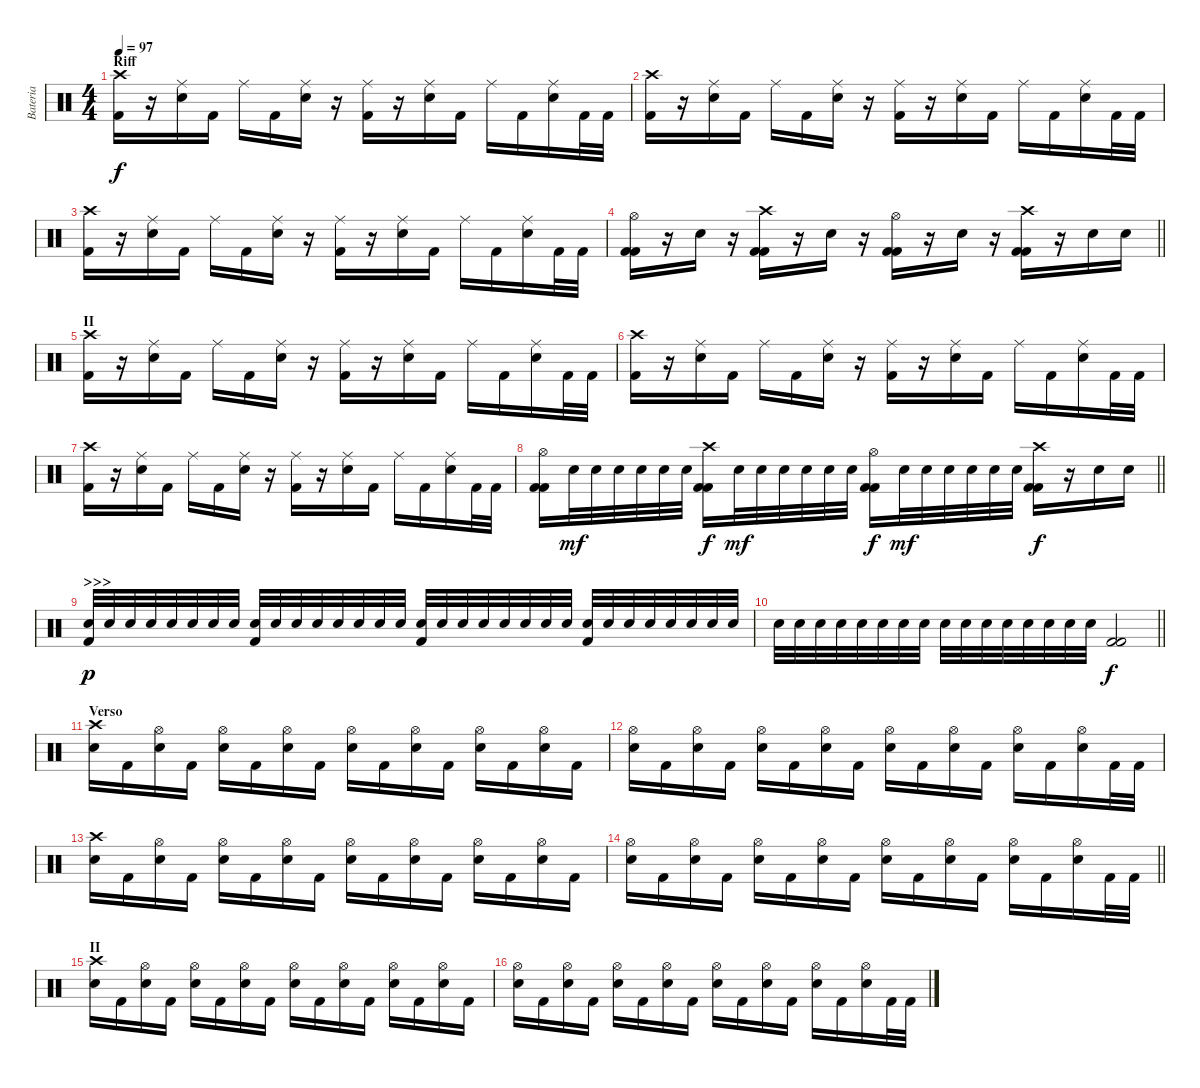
\track ("Bateria" "Bateria") {instrument percussion}
\staff {score}
\articulation defaults
\ts (4 4)
\section ("" "Riff")
\tempo 97
\clef neutral
\ks c
("Crash high (hit)" "Kick (hit) 2").16{dy f} r.16 ("Ride (middle)" "Electric Snare (hit)").16 "Kick (hit) 2".16 "Ride (middle)".16 "Kick (hit) 2".16 ("Ride (middle)" "Electric Snare (hit)").16 r.16 ("Ride (middle)" "Kick (hit) 2").16 r.16 ("Ride (middle)" "Electric Snare (hit)").16 "Kick (hit) 2".16 "Ride (middle)".16 "Kick (hit) 2".16 ("Ride (middle)" "Electric Snare (hit)").16 "Kick (hit) 2".32 "Kick (hit) 2".32 |
("Crash high (hit)" "Kick (hit) 2").16 r.16 ("Ride (middle)" "Electric Snare (hit)").16 "Kick (hit) 2".16 "Ride (middle)".16 "Kick (hit) 2".16 ("Ride (middle)" "Electric Snare (hit)").16 r.16 ("Ride (middle)" "Kick (hit) 2").16 r.16 ("Ride (middle)" "Electric Snare (hit)").16 "Kick (hit) 2".16 "Ride (middle)".16 "Kick (hit) 2".16 ("Ride (middle)" "Electric Snare (hit)").16 "Kick (hit) 2".32 "Kick (hit) 2".32 |
("Crash high (hit)" "Kick (hit) 2").16 r.16 ("Ride (middle)" "Electric Snare (hit)").16 "Kick (hit) 2".16 "Ride (middle)".16 "Kick (hit) 2".16 ("Ride (middle)" "Electric Snare (hit)").16 r.16 ("Ride (middle)" "Kick (hit) 2").16 r.16 ("Ride (middle)" "Electric Snare (hit)").16 "Kick (hit) 2".16 "Ride (middle)".16 "Kick (hit) 2".16 ("Ride (middle)" "Electric Snare (hit)").16 "Kick (hit) 2".32 "Kick (hit) 2".32 |
\barLineRight lightlight
("Hi-Hat (open)" "Kick (hit) 2" "Kick (hit) 2").16 r.16 "Electric Snare (hit)".16 r.16 ("Crash high (hit)" "Kick (hit) 2" "Kick (hit) 2").16 r.16 "Electric Snare (hit)".16 r.16 ("Hi-Hat (open)" "Kick (hit) 2" "Kick (hit) 2").16 r.16 "Electric Snare (hit)".16 r.16 ("Crash high (hit)" "Kick (hit) 2" "Kick (hit) 2").16 r.16 "Electric Snare (hit)".16 "Electric Snare (hit)".16 |
\section ("" "II")
("Crash high (hit)" "Kick (hit) 2").16 r.16 ("Ride (middle)" "Electric Snare (hit)").16 "Kick (hit) 2".16 "Ride (middle)".16 "Kick (hit) 2".16 ("Ride (middle)" "Electric Snare (hit)").16 r.16 ("Ride (middle)" "Kick (hit) 2").16 r.16 ("Ride (middle)" "Electric Snare (hit)").16 "Kick (hit) 2".16 "Ride (middle)".16 "Kick (hit) 2".16 ("Ride (middle)" "Electric Snare (hit)").16 "Kick (hit) 2".32 "Kick (hit) 2".32 |
("Crash high (hit)" "Kick (hit) 2").16 r.16 ("Ride (middle)" "Electric Snare (hit)").16 "Kick (hit) 2".16 "Ride (middle)".16 "Kick (hit) 2".16 ("Ride (middle)" "Electric Snare (hit)").16 r.16 ("Ride (middle)" "Kick (hit) 2").16 r.16 ("Ride (middle)" "Electric Snare (hit)").16 "Kick (hit) 2".16 "Ride (middle)".16 "Kick (hit) 2".16 ("Ride (middle)" "Electric Snare (hit)").16 "Kick (hit) 2".32 "Kick (hit) 2".32 |
("Crash high (hit)" "Kick (hit) 2").16 r.16 ("Ride (middle)" "Electric Snare (hit)").16 "Kick (hit) 2".16 "Ride (middle)".16 "Kick (hit) 2".16 ("Ride (middle)" "Electric Snare (hit)").16 r.16 ("Ride (middle)" "Kick (hit) 2").16 r.16 ("Ride (middle)" "Electric Snare (hit)").16 "Kick (hit) 2".16 "Ride (middle)".16 "Kick (hit) 2".16 ("Ride (middle)" "Electric Snare (hit)").16 "Kick (hit) 2".32 "Kick (hit) 2".32 |
\barLineRight lightlight
("Hi-Hat (open)" "Kick (hit) 2" "Kick (hit) 2").16 "Electric Snare (hit)".32{dy mf} "Electric Snare (hit)".32 "Electric Snare (hit)".32 "Electric Snare (hit)".32 "Electric Snare (hit)".32 "Electric Snare (hit)".32 ("Crash high (hit)" "Kick (hit) 2" "Kick (hit) 2").16{dy f} "Electric Snare (hit)".32{dy mf} "Electric Snare (hit)".32 "Electric Snare (hit)".32 "Electric Snare (hit)".32 "Electric Snare (hit)".32 "Electric Snare (hit)".32 ("Hi-Hat (open)" "Kick (hit) 2" "Kick (hit) 2").16{dy f} "Electric Snare (hit)".32{dy mf} "Electric Snare (hit)".32 "Electric Snare (hit)".32 "Electric Snare (hit)".32 "Electric Snare (hit)".32 "Electric Snare (hit)".32 ("Crash high (hit)" "Kick (hit) 2" "Kick (hit) 2").16{dy f} r.16 "Electric Snare (hit)".16 "Electric Snare (hit)".16 |
\section ("" ">>>")
("Electric Snare (hit)" "Kick (hit) 2").32{dy p} "Electric Snare (hit)".32 "Electric Snare (hit)".32 "Electric Snare (hit)".32 "Electric Snare (hit)".32 "Electric Snare (hit)".32 "Electric Snare (hit)".32 "Electric Snare (hit)".32 ("Electric Snare (hit)" "Kick (hit) 2").32 "Electric Snare (hit)".32 "Electric Snare (hit)".32 "Electric Snare (hit)".32 "Electric Snare (hit)".32 "Electric Snare (hit)".32 "Electric Snare (hit)".32 "Electric Snare (hit)".32 ("Electric Snare (hit)" "Kick (hit) 2").32 "Electric Snare (hit)".32 "Electric Snare (hit)".32 "Electric Snare (hit)".32 "Electric Snare (hit)".32 "Electric Snare (hit)".32 "Electric Snare (hit)".32 "Electric Snare (hit)".32 ("Electric Snare (hit)" "Kick (hit) 2").32 "Electric Snare (hit)".32 "Electric Snare (hit)".32 "Electric Snare (hit)".32 "Electric Snare (hit)".32 "Electric Snare (hit)".32 "Electric Snare (hit)".32 "Electric Snare (hit)".32 |
\barLineRight lightlight "Electric Snare (hit)".32 "Electric Snare (hit)".32 "Electric Snare (hit)".32 "Electric Snare (hit)".32 "Electric Snare (hit)".32 "Electric Snare (hit)".32 "Electric Snare (hit)".32 "Electric Snare (hit)".32 "Electric Snare (hit)".32 "Electric Snare (hit)".32 "Electric Snare (hit)".32 "Electric Snare (hit)".32 "Electric Snare (hit)".32 "Electric Snare (hit)".32 "Electric Snare (hit)".32 "Electric Snare (hit)".32
("Kick (hit) 2" "Kick (hit) 2").2{dy f} |
\section ("" "Verso")
("Crash high (hit)" "Electric Snare (hit)").16 "Kick (hit) 2".16 ("Hi-Hat (open)" "Electric Snare (hit)").16 "Kick (hit) 2".16 ("Hi-Hat (open)" "Electric Snare (hit)").16 "Kick (hit) 2".16 ("Hi-Hat (open)" "Electric Snare (hit)").16 "Kick (hit) 2".16 ("Hi-Hat (open)" "Electric Snare (hit)").16 "Kick (hit) 2".16 ("Hi-Hat (open)" "Electric Snare (hit)").16 "Kick (hit) 2".16 ("Hi-Hat (open)" "Electric Snare (hit)").16 "Kick (hit) 2".16 ("Hi-Hat (open)" "Electric Snare (hit)").16 "Kick (hit) 2".16 |
("Hi-Hat (open)" "Electric Snare (hit)").16 "Kick (hit) 2".16 ("Hi-Hat (open)" "Electric Snare (hit)").16 "Kick (hit) 2".16 ("Hi-Hat (open)" "Electric Snare (hit)").16 "Kick (hit) 2".16 ("Hi-Hat (open)" "Electric Snare (hit)").16 "Kick (hit) 2".16 ("Hi-Hat (open)" "Electric Snare (hit)").16 "Kick (hit) 2".16 ("Hi-Hat (open)" "Electric Snare (hit)").16 "Kick (hit) 2".16 ("Hi-Hat (open)" "Electric Snare (hit)").16 "Kick (hit) 2".16 ("Hi-Hat (open)" "Electric Snare (hit)").16 "Kick (hit) 2".32 "Kick (hit) 2".32 |
("Crash high (hit)" "Electric Snare (hit)").16 "Kick (hit) 2".16 ("Hi-Hat (open)" "Electric Snare (hit)").16 "Kick (hit) 2".16 ("Hi-Hat (open)" "Electric Snare (hit)").16 "Kick (hit) 2".16 ("Hi-Hat (open)" "Electric Snare (hit)").16 "Kick (hit) 2".16 ("Hi-Hat (open)" "Electric Snare (hit)").16 "Kick (hit) 2".16 ("Hi-Hat (open)" "Electric Snare (hit)").16 "Kick (hit) 2".16 ("Hi-Hat (open)" "Electric Snare (hit)").16 "Kick (hit) 2".16 ("Hi-Hat (open)" "Electric Snare (hit)").16 "Kick (hit) 2".16 |
\barLineRight lightlight
("Hi-Hat (open)" "Electric Snare (hit)").16 "Kick (hit) 2".16 ("Hi-Hat (open)" "Electric Snare (hit)").16 "Kick (hit) 2".16 ("Hi-Hat (open)" "Electric Snare (hit)").16 "Kick (hit) 2".16 ("Hi-Hat (open)" "Electric Snare (hit)").16 "Kick (hit) 2".16 ("Hi-Hat (open)" "Electric Snare (hit)").16 "Kick (hit) 2".16 ("Hi-Hat (open)" "Electric Snare (hit)").16 "Kick (hit) 2".16 ("Hi-Hat (open)" "Electric Snare (hit)").16 "Kick (hit) 2".16 ("Hi-Hat (open)" "Electric Snare (hit)").16 "Kick (hit) 2".32 "Kick (hit) 2".32 |
\section ("" "II")
("Crash high (hit)" "Electric Snare (hit)").16 "Kick (hit) 2".16 ("Hi-Hat (open)" "Electric Snare (hit)").16 "Kick (hit) 2".16 ("Hi-Hat (open)" "Electric Snare (hit)").16 "Kick (hit) 2".16 ("Hi-Hat (open)" "Electric Snare (hit)").16 "Kick (hit) 2".16 ("Hi-Hat (open)" "Electric Snare (hit)").16 "Kick (hit) 2".16 ("Hi-Hat (open)" "Electric Snare (hit)").16 "Kick (hit) 2".16 ("Hi-Hat (open)" "Electric Snare (hit)").16 "Kick (hit) 2".16 ("Hi-Hat (open)" "Electric Snare (hit)").16 "Kick (hit) 2".16 |
("Hi-Hat (open)" "Electric Snare (hit)").16 "Kick (hit) 2".16 ("Hi-Hat (open)" "Electric Snare (hit)").16 "Kick (hit) 2".16 ("Hi-Hat (open)" "Electric Snare (hit)").16 "Kick (hit) 2".16 ("Hi-Hat (open)" "Electric Snare (hit)").16 "Kick (hit) 2".16 ("Hi-Hat (open)" "Electric Snare (hit)").16 "Kick (hit) 2".16 ("Hi-Hat (open)" "Electric Snare (hit)").16 "Kick (hit) 2".16 ("Hi-Hat (open)" "Electric Snare (hit)").16 "Kick (hit) 2".16 ("Hi-Hat (open)" "Electric Snare (hit)").16 "Kick (hit) 2".32 "Kick (hit) 2".32
